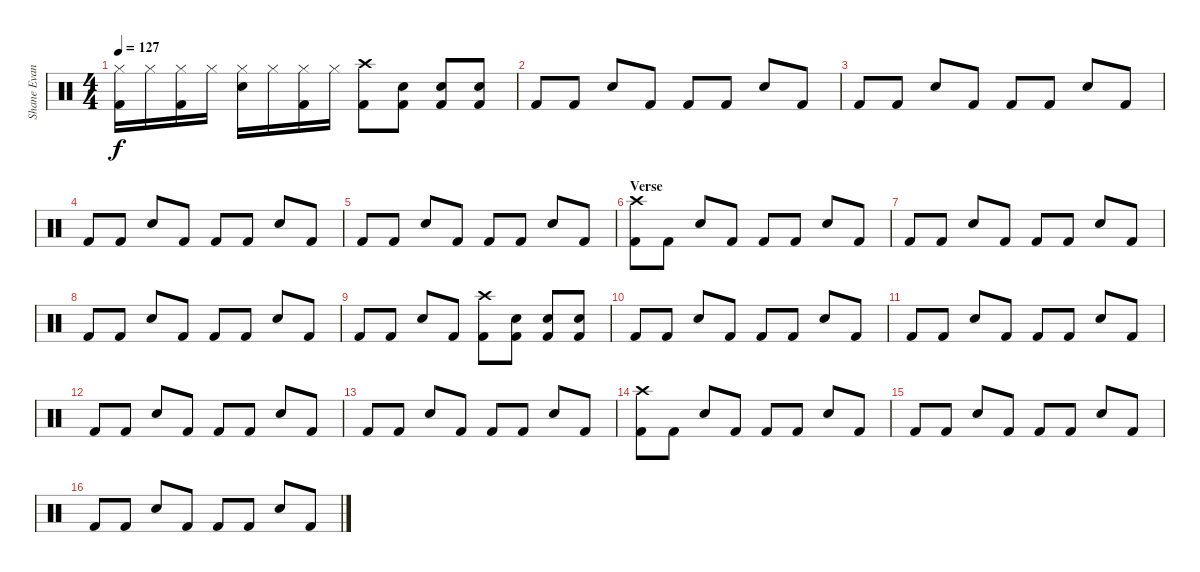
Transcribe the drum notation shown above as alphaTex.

\track ("Shane Evans" "Shane Evan") {instrument percussion}
\staff {score}
\articulation defaults
\ts (4 4)
\tempo 127
\clef neutral
\ks c
("Hi-Hat (closed)" "Kick (hit) 2").16{dy f} "Hi-Hat (closed)".16 ("Hi-Hat (closed)" "Kick (hit) 2").16 "Hi-Hat (closed)".16 ("Hi-Hat (closed)" "Snare (hit) 2").16 "Hi-Hat (closed)".16 ("Hi-Hat (closed)" "Kick (hit) 2").16 "Hi-Hat (closed)".16 ("Crash high (hit)" "Kick (hit) 2").8 ("Snare (hit) 2" "Kick (hit) 2").8 ("Snare (hit) 2" "Kick (hit) 2").8 ("Snare (hit) 2" "Kick (hit) 2").8 |
"Kick (hit) 2".8 "Kick (hit) 2".8 "Snare (hit) 2".8 "Kick (hit) 2".8 "Kick (hit) 2".8 "Kick (hit) 2".8 "Snare (hit) 2".8 "Kick (hit) 2".8 |
"Kick (hit) 2".8 "Kick (hit) 2".8 "Snare (hit) 2".8 "Kick (hit) 2".8 "Kick (hit) 2".8 "Kick (hit) 2".8 "Snare (hit) 2".8 "Kick (hit) 2".8 |
"Kick (hit) 2".8 "Kick (hit) 2".8 "Snare (hit) 2".8 "Kick (hit) 2".8 "Kick (hit) 2".8 "Kick (hit) 2".8 "Snare (hit) 2".8 "Kick (hit) 2".8 |
"Kick (hit) 2".8 "Kick (hit) 2".8 "Snare (hit) 2".8 "Kick (hit) 2".8 "Kick (hit) 2".8 "Kick (hit) 2".8 "Snare (hit) 2".8 "Kick (hit) 2".8 |
\section ("" "Verse")
("Crash high (hit)" "Kick (hit) 2").8 "Kick (hit) 2".8 "Snare (hit) 2".8 "Kick (hit) 2".8 "Kick (hit) 2".8 "Kick (hit) 2".8 "Snare (hit) 2".8 "Kick (hit) 2".8 |
"Kick (hit) 2".8 "Kick (hit) 2".8 "Snare (hit) 2".8 "Kick (hit) 2".8 "Kick (hit) 2".8 "Kick (hit) 2".8 "Snare (hit) 2".8 "Kick (hit) 2".8 |
"Kick (hit) 2".8 "Kick (hit) 2".8 "Snare (hit) 2".8 "Kick (hit) 2".8 "Kick (hit) 2".8 "Kick (hit) 2".8 "Snare (hit) 2".8 "Kick (hit) 2".8 |
"Kick (hit) 2".8 "Kick (hit) 2".8 "Snare (hit) 2".8 "Kick (hit) 2".8 ("Crash high (hit)" "Kick (hit) 2").8 ("Snare (hit) 2" "Kick (hit) 2").8 ("Snare (hit) 2" "Kick (hit) 2").8 ("Snare (hit) 2" "Kick (hit) 2").8 |
"Kick (hit) 2".8 "Kick (hit) 2".8 "Snare (hit) 2".8 "Kick (hit) 2".8 "Kick (hit) 2".8 "Kick (hit) 2".8 "Snare (hit) 2".8 "Kick (hit) 2".8 |
"Kick (hit) 2".8 "Kick (hit) 2".8 "Snare (hit) 2".8 "Kick (hit) 2".8 "Kick (hit) 2".8 "Kick (hit) 2".8 "Snare (hit) 2".8 "Kick (hit) 2".8 |
"Kick (hit) 2".8 "Kick (hit) 2".8 "Snare (hit) 2".8 "Kick (hit) 2".8 "Kick (hit) 2".8 "Kick (hit) 2".8 "Snare (hit) 2".8 "Kick (hit) 2".8 |
"Kick (hit) 2".8 "Kick (hit) 2".8 "Snare (hit) 2".8 "Kick (hit) 2".8 "Kick (hit) 2".8 "Kick (hit) 2".8 "Snare (hit) 2".8 "Kick (hit) 2".8 |
("Crash high (hit)" "Kick (hit) 2").8 "Kick (hit) 2".8 "Snare (hit) 2".8 "Kick (hit) 2".8 "Kick (hit) 2".8 "Kick (hit) 2".8 "Snare (hit) 2".8 "Kick (hit) 2".8 |
"Kick (hit) 2".8 "Kick (hit) 2".8 "Snare (hit) 2".8 "Kick (hit) 2".8 "Kick (hit) 2".8 "Kick (hit) 2".8 "Snare (hit) 2".8 "Kick (hit) 2".8 |
"Kick (hit) 2".8 "Kick (hit) 2".8 "Snare (hit) 2".8 "Kick (hit) 2".8 "Kick (hit) 2".8 "Kick (hit) 2".8 "Snare (hit) 2".8 "Kick (hit) 2".8
